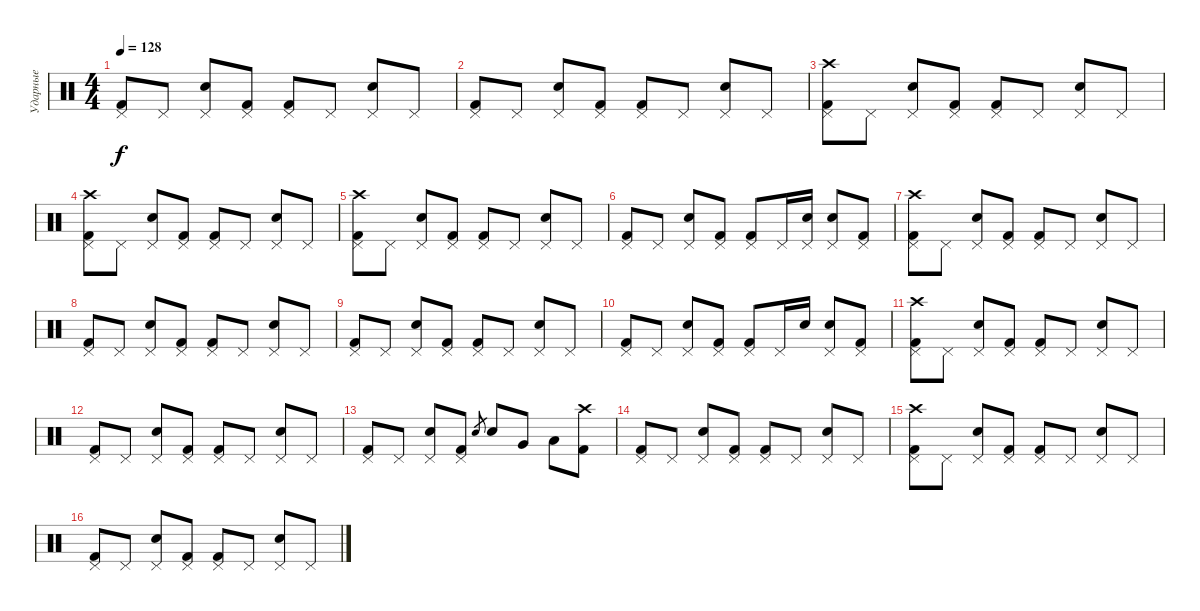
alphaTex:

\track ("Ударные" "Ударные") {instrument percussion}
\staff {score}
\articulation defaults
\ts (4 4)
\tempo 128
\clef neutral
\ks c
("Kick (hit) 2" "Pedal Hi-Hat (hit)").8{dy f} "Pedal Hi-Hat (hit)".8 ("Pedal Hi-Hat (hit)" "Electric Snare (hit)").8 ("Kick (hit) 2" "Pedal Hi-Hat (hit)").8 ("Kick (hit) 2" "Pedal Hi-Hat (hit)").8 "Pedal Hi-Hat (hit)".8 ("Pedal Hi-Hat (hit)" "Electric Snare (hit)").8 "Pedal Hi-Hat (hit)".8 |
("Kick (hit) 2" "Pedal Hi-Hat (hit)").8 "Pedal Hi-Hat (hit)".8 ("Pedal Hi-Hat (hit)" "Electric Snare (hit)").8 ("Kick (hit) 2" "Pedal Hi-Hat (hit)").8 ("Kick (hit) 2" "Pedal Hi-Hat (hit)").8 "Pedal Hi-Hat (hit)".8 ("Pedal Hi-Hat (hit)" "Electric Snare (hit)").8 "Pedal Hi-Hat (hit)".8 |
("Kick (hit) 2" "Pedal Hi-Hat (hit)" "Crash high (hit)").8 "Pedal Hi-Hat (hit)".8 ("Pedal Hi-Hat (hit)" "Electric Snare (hit)").8 ("Kick (hit) 2" "Pedal Hi-Hat (hit)").8 ("Kick (hit) 2" "Pedal Hi-Hat (hit)").8 "Pedal Hi-Hat (hit)".8 ("Pedal Hi-Hat (hit)" "Electric Snare (hit)").8 "Pedal Hi-Hat (hit)".8 |
("Kick (hit) 2" "Pedal Hi-Hat (hit)" "Crash high (hit)").8 "Pedal Hi-Hat (hit)".8 ("Pedal Hi-Hat (hit)" "Electric Snare (hit)").8 ("Kick (hit) 2" "Pedal Hi-Hat (hit)").8 ("Kick (hit) 2" "Pedal Hi-Hat (hit)").8 "Pedal Hi-Hat (hit)".8 ("Pedal Hi-Hat (hit)" "Electric Snare (hit)").8 "Pedal Hi-Hat (hit)".8 |
("Kick (hit) 2" "Pedal Hi-Hat (hit)" "Crash high (hit)").8 "Pedal Hi-Hat (hit)".8 ("Pedal Hi-Hat (hit)" "Electric Snare (hit)").8 ("Kick (hit) 2" "Pedal Hi-Hat (hit)").8 ("Kick (hit) 2" "Pedal Hi-Hat (hit)").8 "Pedal Hi-Hat (hit)".8 ("Pedal Hi-Hat (hit)" "Electric Snare (hit)").8 "Pedal Hi-Hat (hit)".8 |
("Kick (hit) 2" "Pedal Hi-Hat (hit)").8 "Pedal Hi-Hat (hit)".8 ("Pedal Hi-Hat (hit)" "Electric Snare (hit)").8 ("Kick (hit) 2" "Pedal Hi-Hat (hit)").8 ("Kick (hit) 2" "Pedal Hi-Hat (hit)").8 "Pedal Hi-Hat (hit)".16 ("Pedal Hi-Hat (hit)" "Electric Snare (hit)").16 ("Pedal Hi-Hat (hit)" "Electric Snare (hit)").8 ("Kick (hit) 2" "Pedal Hi-Hat (hit)").8 |
("Kick (hit) 2" "Pedal Hi-Hat (hit)" "Crash high (hit)").8 "Pedal Hi-Hat (hit)".8 ("Pedal Hi-Hat (hit)" "Electric Snare (hit)").8 ("Kick (hit) 2" "Pedal Hi-Hat (hit)").8 ("Kick (hit) 2" "Pedal Hi-Hat (hit)").8 "Pedal Hi-Hat (hit)".8 ("Pedal Hi-Hat (hit)" "Electric Snare (hit)").8 "Pedal Hi-Hat (hit)".8 |
("Kick (hit) 2" "Pedal Hi-Hat (hit)").8 "Pedal Hi-Hat (hit)".8 ("Pedal Hi-Hat (hit)" "Electric Snare (hit)").8 ("Kick (hit) 2" "Pedal Hi-Hat (hit)").8 ("Kick (hit) 2" "Pedal Hi-Hat (hit)").8 "Pedal Hi-Hat (hit)".8 ("Pedal Hi-Hat (hit)" "Electric Snare (hit)").8 "Pedal Hi-Hat (hit)".8 |
("Kick (hit) 2" "Pedal Hi-Hat (hit)").8 "Pedal Hi-Hat (hit)".8 ("Pedal Hi-Hat (hit)" "Electric Snare (hit)").8 ("Kick (hit) 2" "Pedal Hi-Hat (hit)").8 ("Kick (hit) 2" "Pedal Hi-Hat (hit)").8 "Pedal Hi-Hat (hit)".8 ("Pedal Hi-Hat (hit)" "Electric Snare (hit)").8 "Pedal Hi-Hat (hit)".8 |
("Kick (hit) 2" "Pedal Hi-Hat (hit)").8 "Pedal Hi-Hat (hit)".8 ("Pedal Hi-Hat (hit)" "Electric Snare (hit)").8 ("Kick (hit) 2" "Pedal Hi-Hat (hit)").8 ("Kick (hit) 2" "Pedal Hi-Hat (hit)").8 "Pedal Hi-Hat (hit)".16 "Electric Snare (hit)".16 ("Pedal Hi-Hat (hit)" "Electric Snare (hit)").8 ("Kick (hit) 2" "Pedal Hi-Hat (hit)").8 |
("Kick (hit) 2" "Pedal Hi-Hat (hit)" "Crash high (hit)").8 "Pedal Hi-Hat (hit)".8 ("Pedal Hi-Hat (hit)" "Electric Snare (hit)").8 ("Kick (hit) 2" "Pedal Hi-Hat (hit)").8 ("Kick (hit) 2" "Pedal Hi-Hat (hit)").8 "Pedal Hi-Hat (hit)".8 ("Pedal Hi-Hat (hit)" "Electric Snare (hit)").8 "Pedal Hi-Hat (hit)".8 |
("Kick (hit) 2" "Pedal Hi-Hat (hit)").8 "Pedal Hi-Hat (hit)".8 ("Pedal Hi-Hat (hit)" "Electric Snare (hit)").8 ("Kick (hit) 2" "Pedal Hi-Hat (hit)").8 ("Kick (hit) 2" "Pedal Hi-Hat (hit)").8 "Pedal Hi-Hat (hit)".8 ("Pedal Hi-Hat (hit)" "Electric Snare (hit)").8 "Pedal Hi-Hat (hit)".8 |
("Kick (hit) 2" "Pedal Hi-Hat (hit)").8 "Pedal Hi-Hat (hit)".8 ("Pedal Hi-Hat (hit)" "Electric Snare (hit)").8 ("Kick (hit) 2" "Pedal Hi-Hat (hit)").8 "Electric Snare (hit)".8{gr} "Electric Snare (hit)".8 "Very Low Tom (hit)".8 "Low Floor Tom (hit)".8 ("Kick (hit) 2" "Crash high (hit)").8 |
("Kick (hit) 2" "Pedal Hi-Hat (hit)").8 "Pedal Hi-Hat (hit)".8 ("Pedal Hi-Hat (hit)" "Electric Snare (hit)").8 ("Kick (hit) 2" "Pedal Hi-Hat (hit)").8 ("Kick (hit) 2" "Pedal Hi-Hat (hit)").8 "Pedal Hi-Hat (hit)".8 ("Pedal Hi-Hat (hit)" "Electric Snare (hit)").8 "Pedal Hi-Hat (hit)".8 |
("Kick (hit) 2" "Pedal Hi-Hat (hit)" "Crash high (hit)").8 "Pedal Hi-Hat (hit)".8 ("Pedal Hi-Hat (hit)" "Electric Snare (hit)").8 ("Kick (hit) 2" "Pedal Hi-Hat (hit)").8 ("Kick (hit) 2" "Pedal Hi-Hat (hit)").8 "Pedal Hi-Hat (hit)".8 ("Pedal Hi-Hat (hit)" "Electric Snare (hit)").8 "Pedal Hi-Hat (hit)".8 |
("Kick (hit) 2" "Pedal Hi-Hat (hit)").8 "Pedal Hi-Hat (hit)".8 ("Pedal Hi-Hat (hit)" "Electric Snare (hit)").8 ("Kick (hit) 2" "Pedal Hi-Hat (hit)").8 ("Kick (hit) 2" "Pedal Hi-Hat (hit)").8 "Pedal Hi-Hat (hit)".8 ("Pedal Hi-Hat (hit)" "Electric Snare (hit)").8 "Pedal Hi-Hat (hit)".8
